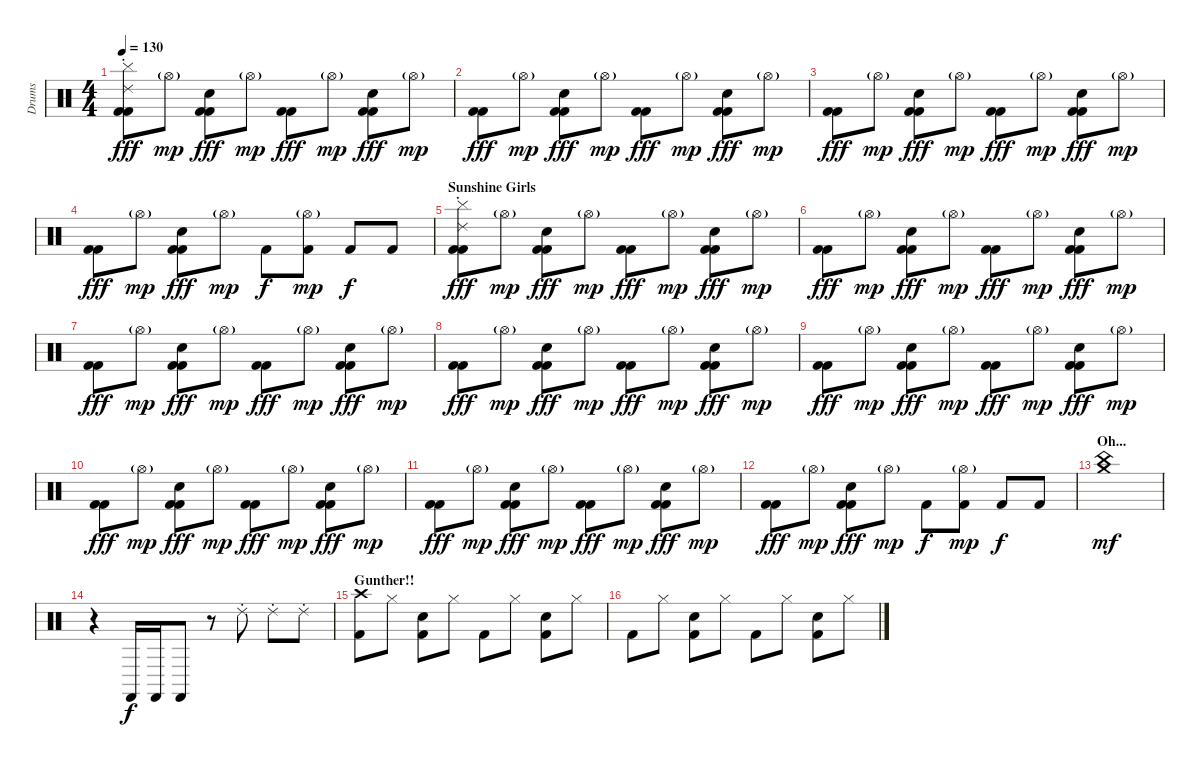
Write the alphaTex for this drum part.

\track ("Drums" "Drums") {instrument percussion}
\staff {score}
\articulation defaults
\ts (4 4)
\tempo 130
\clef neutral
\ks c
("Ride (choke) 2" "Cymbal (hit)" "Kick (hit) 2" "Kick (hit) 2").8{dy fff} "Hi-Hat (open)"{g}.8{dy mp} ("Hand Clap (hit)" "Kick (hit) 2" "Kick (hit) 2").8{dy fff} "Hi-Hat (open)"{g}.8{dy mp} ("Kick (hit) 2" "Kick (hit) 2").8{dy fff} "Hi-Hat (open)"{g}.8{dy mp} ("Hand Clap (hit)" "Kick (hit) 2" "Kick (hit) 2").8{dy fff} "Hi-Hat (open)"{g}.8{dy mp} |
("Kick (hit) 2" "Kick (hit) 2").8{dy fff} "Hi-Hat (open)"{g}.8{dy mp} ("Hand Clap (hit)" "Kick (hit) 2" "Kick (hit) 2").8{dy fff} "Hi-Hat (open)"{g}.8{dy mp} ("Kick (hit) 2" "Kick (hit) 2").8{dy fff} "Hi-Hat (open)"{g}.8{dy mp} ("Hand Clap (hit)" "Kick (hit) 2" "Kick (hit) 2").8{dy fff} "Hi-Hat (open)"{g}.8{dy mp} |
("Kick (hit) 2" "Kick (hit) 2").8{dy fff} "Hi-Hat (open)"{g}.8{dy mp} ("Hand Clap (hit)" "Kick (hit) 2" "Kick (hit) 2").8{dy fff} "Hi-Hat (open)"{g}.8{dy mp} ("Kick (hit) 2" "Kick (hit) 2").8{dy fff} "Hi-Hat (open)"{g}.8{dy mp} ("Hand Clap (hit)" "Kick (hit) 2" "Kick (hit) 2").8{dy fff} "Hi-Hat (open)"{g}.8{dy mp} |
("Kick (hit) 2" "Kick (hit) 2").8{dy fff} "Hi-Hat (open)"{g}.8{dy mp} ("Hand Clap (hit)" "Kick (hit) 2" "Kick (hit) 2").8{dy fff} "Hi-Hat (open)"{g}.8{dy mp} "Kick (hit) 2".8{dy f} ("Hi-Hat (open)"{g} "Kick (hit) 2").8{dy mp} "Kick (hit) 2".8{dy f} "Kick (hit) 2".8 |
\section ("" "Sunshine Girls")
("Ride (choke) 2" "Cymbal (hit)" "Kick (hit) 2" "Kick (hit) 2").8{dy fff} "Hi-Hat (open)"{g}.8{dy mp} ("Hand Clap (hit)" "Kick (hit) 2" "Kick (hit) 2").8{dy fff} "Hi-Hat (open)"{g}.8{dy mp} ("Kick (hit) 2" "Kick (hit) 2").8{dy fff} "Hi-Hat (open)"{g}.8{dy mp} ("Hand Clap (hit)" "Kick (hit) 2" "Kick (hit) 2").8{dy fff} "Hi-Hat (open)"{g}.8{dy mp} |
("Kick (hit) 2" "Kick (hit) 2").8{dy fff} "Hi-Hat (open)"{g}.8{dy mp} ("Hand Clap (hit)" "Kick (hit) 2" "Kick (hit) 2").8{dy fff} "Hi-Hat (open)"{g}.8{dy mp} ("Kick (hit) 2" "Kick (hit) 2").8{dy fff} "Hi-Hat (open)"{g}.8{dy mp} ("Hand Clap (hit)" "Kick (hit) 2" "Kick (hit) 2").8{dy fff} "Hi-Hat (open)"{g}.8{dy mp} |
("Kick (hit) 2" "Kick (hit) 2").8{dy fff} "Hi-Hat (open)"{g}.8{dy mp} ("Hand Clap (hit)" "Kick (hit) 2" "Kick (hit) 2").8{dy fff} "Hi-Hat (open)"{g}.8{dy mp} ("Kick (hit) 2" "Kick (hit) 2").8{dy fff} "Hi-Hat (open)"{g}.8{dy mp} ("Hand Clap (hit)" "Kick (hit) 2" "Kick (hit) 2").8{dy fff} "Hi-Hat (open)"{g}.8{dy mp} |
("Kick (hit) 2" "Kick (hit) 2").8{dy fff} "Hi-Hat (open)"{g}.8{dy mp} ("Hand Clap (hit)" "Kick (hit) 2" "Kick (hit) 2").8{dy fff} "Hi-Hat (open)"{g}.8{dy mp} ("Kick (hit) 2" "Kick (hit) 2").8{dy fff} "Hi-Hat (open)"{g}.8{dy mp} ("Hand Clap (hit)" "Kick (hit) 2" "Kick (hit) 2").8{dy fff} "Hi-Hat (open)"{g}.8{dy mp} |
("Kick (hit) 2" "Kick (hit) 2").8{dy fff} "Hi-Hat (open)"{g}.8{dy mp} ("Hand Clap (hit)" "Kick (hit) 2" "Kick (hit) 2").8{dy fff} "Hi-Hat (open)"{g}.8{dy mp} ("Kick (hit) 2" "Kick (hit) 2").8{dy fff} "Hi-Hat (open)"{g}.8{dy mp} ("Hand Clap (hit)" "Kick (hit) 2" "Kick (hit) 2").8{dy fff} "Hi-Hat (open)"{g}.8{dy mp} |
("Kick (hit) 2" "Kick (hit) 2").8{dy fff} "Hi-Hat (open)"{g}.8{dy mp} ("Hand Clap (hit)" "Kick (hit) 2" "Kick (hit) 2").8{dy fff} "Hi-Hat (open)"{g}.8{dy mp} ("Kick (hit) 2" "Kick (hit) 2").8{dy fff} "Hi-Hat (open)"{g}.8{dy mp} ("Hand Clap (hit)" "Kick (hit) 2" "Kick (hit) 2").8{dy fff} "Hi-Hat (open)"{g}.8{dy mp} |
("Kick (hit) 2" "Kick (hit) 2").8{dy fff} "Hi-Hat (open)"{g}.8{dy mp} ("Hand Clap (hit)" "Kick (hit) 2" "Kick (hit) 2").8{dy fff} "Hi-Hat (open)"{g}.8{dy mp} ("Kick (hit) 2" "Kick (hit) 2").8{dy fff} "Hi-Hat (open)"{g}.8{dy mp} ("Hand Clap (hit)" "Kick (hit) 2" "Kick (hit) 2").8{dy fff} "Hi-Hat (open)"{g}.8{dy mp} |
("Kick (hit) 2" "Kick (hit) 2").8{dy fff} "Hi-Hat (open)"{g}.8{dy mp} ("Hand Clap (hit)" "Kick (hit) 2" "Kick (hit) 2").8{dy fff} "Hi-Hat (open)"{g}.8{dy mp} "Kick (hit) 2".8{dy f} ("Hi-Hat (open)"{g} "Kick (hit) 2").8{dy mp} "Kick (hit) 2".8{dy f} "Kick (hit) 2".8 |
\section ("" "Oh...")
("Crash medium (hit)" "China (hit)").1{dy mf} |
r.4 "Castanets (hit)".16{dy f} "Castanets (hit)".16 "Castanets (hit)".8 r.8 "Ride (choke) 2".8 "Ride (choke) 2".8 "Ride (choke) 2".8 |
\section ("" "Gunther!!")
("Crash high (hit)" "Kick (hit) 2").8 "Hi-Hat (closed)".8 ("Hand Clap (hit)" "Kick (hit) 2").8 "Hi-Hat (closed)".8 "Kick (hit) 2".8 "Hi-Hat (closed)".8 ("Hand Clap (hit)" "Kick (hit) 2").8 "Hi-Hat (closed)".8 |
"Kick (hit) 2".8 "Hi-Hat (closed)".8 ("Hand Clap (hit)" "Kick (hit) 2").8 "Hi-Hat (closed)".8 "Kick (hit) 2".8 "Hi-Hat (closed)".8 ("Hand Clap (hit)" "Kick (hit) 2").8 "Hi-Hat (closed)".8
